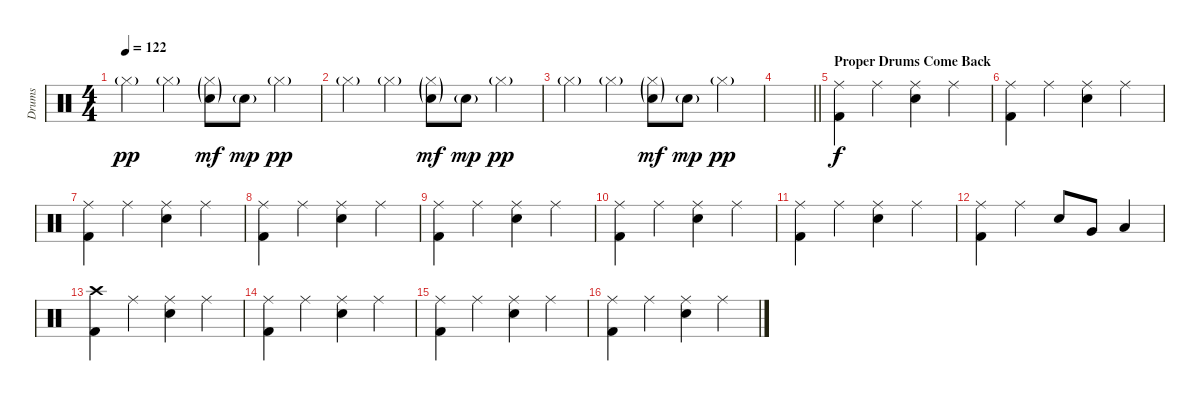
\track ("Drums" "Drums") {instrument percussion}
\staff {score}
\articulation defaults
\ts (4 4)
\tempo 122
\clef neutral
\ks c "Hi-Hat (closed)"{g}.4{dy pp} "Hi-Hat (closed)"{g}.4
("Hi-Hat (closed)"{g} "Electric Snare (hit)"{g}).8{dy mf} "Electric Snare (hit)"{g}.8{dy mp} "Hi-Hat (closed)"{g}.4{dy pp} |
"Hi-Hat (closed)"{g}.4 "Hi-Hat (closed)"{g}.4 ("Hi-Hat (closed)"{g} "Electric Snare (hit)"{g}).8{dy mf} "Electric Snare (hit)"{g}.8{dy mp} "Hi-Hat (closed)"{g}.4{dy pp} |
"Hi-Hat (closed)"{g}.4 "Hi-Hat (closed)"{g}.4 ("Hi-Hat (closed)"{g} "Electric Snare (hit)"{g}).8{dy mf} "Electric Snare (hit)"{g}.8{dy mp} "Hi-Hat (closed)"{g}.4{dy pp} |
\barLineRight lightlight
|
\section ("" "Proper Drums Come Back")
("Ride (middle)" "Kick (hit) 2").4{dy f} "Ride (middle)".4 ("Ride (middle)" "Electric Snare (hit)").4 "Ride (middle)".4 |
("Ride (middle)" "Kick (hit) 2").4 "Ride (middle)".4 ("Ride (middle)" "Electric Snare (hit)").4 "Ride (middle)".4 |
("Ride (middle)" "Kick (hit) 2").4 "Ride (middle)".4 ("Ride (middle)" "Electric Snare (hit)").4 "Ride (middle)".4 |
("Ride (middle)" "Kick (hit) 2").4 "Ride (middle)".4 ("Ride (middle)" "Electric Snare (hit)").4 "Ride (middle)".4 |
("Ride (middle)" "Kick (hit) 2").4 "Ride (middle)".4 ("Ride (middle)" "Electric Snare (hit)").4 "Ride (middle)".4 |
("Ride (middle)" "Kick (hit) 2").4 "Ride (middle)".4 ("Ride (middle)" "Electric Snare (hit)").4 "Ride (middle)".4 |
("Ride (middle)" "Kick (hit) 2").4 "Ride (middle)".4 ("Ride (middle)" "Electric Snare (hit)").4 "Ride (middle)".4 |
("Ride (middle)" "Kick (hit) 2").4 "Ride (middle)".4 "Electric Snare (hit)".8 "Very Low Tom (hit)".8 "Low Floor Tom (hit)".4 |
("Crash high (hit)" "Kick (hit) 2").4 "Ride (middle)".4 ("Ride (middle)" "Electric Snare (hit)").4 "Ride (middle)".4 |
("Ride (middle)" "Kick (hit) 2").4 "Ride (middle)".4 ("Ride (middle)" "Electric Snare (hit)").4 "Ride (middle)".4 |
("Ride (middle)" "Kick (hit) 2").4 "Ride (middle)".4 ("Ride (middle)" "Electric Snare (hit)").4 "Ride (middle)".4 |
("Ride (middle)" "Kick (hit) 2").4 "Ride (middle)".4 ("Ride (middle)" "Electric Snare (hit)").4 "Ride (middle)".4
